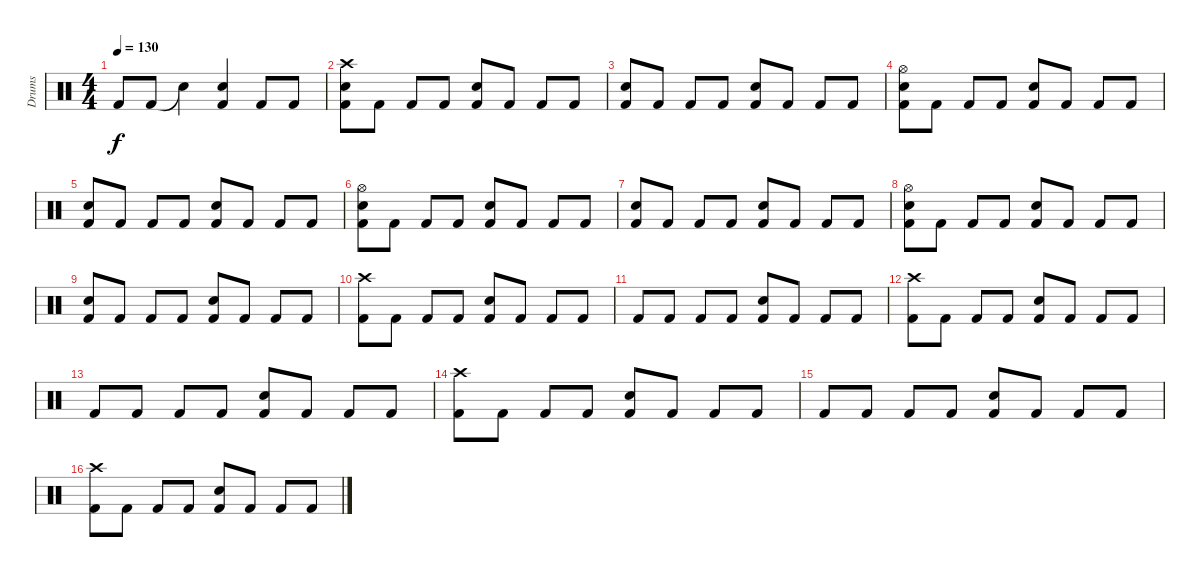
\track ("Drums" "Drums") {instrument percussion}
\staff {score}
\articulation defaults
\ts (4 4)
\tempo 130
\clef neutral
\ks c "Kick (hit) 2".8{dy f} "Kick (hit) 2".8 "Snare (hit)"{t}.4
("Electric Snare (hit)" "Kick (hit) 2").4 "Kick (hit) 2".8 "Kick (hit) 2".8 |
("Crash high (hit)" "Electric Snare (hit)" "Kick (hit) 2").8{volume 13} "Kick (hit) 2".8 "Kick (hit) 2".8 "Kick (hit) 2".8 ("Electric Snare (hit)" "Kick (hit) 2").8 "Kick (hit) 2".8 "Kick (hit) 2".8 "Kick (hit) 2".8 |
("Snare (hit) 2" "Kick (hit) 2").8 "Kick (hit) 2".8 "Kick (hit) 2".8 "Kick (hit) 2".8 ("Electric Snare (hit)" "Kick (hit) 2").8 "Kick (hit) 2".8 "Kick (hit) 2".8 "Kick (hit) 2".8 |
("Hi-Hat (open)" "Electric Snare (hit)" "Kick (hit) 2").8 "Kick (hit) 2".8 "Kick (hit) 2".8 "Kick (hit) 2".8 ("Electric Snare (hit)" "Kick (hit) 2").8 "Kick (hit) 2".8 "Kick (hit) 2".8 "Kick (hit) 2".8 |
("Snare (hit) 2" "Kick (hit) 2").8 "Kick (hit) 2".8 "Kick (hit) 2".8 "Kick (hit) 2".8 ("Electric Snare (hit)" "Kick (hit) 2").8 "Kick (hit) 2".8 "Kick (hit) 2".8 "Kick (hit) 2".8 |
("Hi-Hat (open)" "Electric Snare (hit)" "Kick (hit) 2").8 "Kick (hit) 2".8 "Kick (hit) 2".8 "Kick (hit) 2".8 ("Electric Snare (hit)" "Kick (hit) 2").8 "Kick (hit) 2".8 "Kick (hit) 2".8 "Kick (hit) 2".8 |
("Snare (hit) 2" "Kick (hit) 2").8 "Kick (hit) 2".8 "Kick (hit) 2".8 "Kick (hit) 2".8 ("Electric Snare (hit)" "Kick (hit) 2").8 "Kick (hit) 2".8 "Kick (hit) 2".8 "Kick (hit) 2".8 |
("Hi-Hat (open)" "Electric Snare (hit)" "Kick (hit) 2").8 "Kick (hit) 2".8 "Kick (hit) 2".8 "Kick (hit) 2".8 ("Electric Snare (hit)" "Kick (hit) 2").8 "Kick (hit) 2".8 "Kick (hit) 2".8 "Kick (hit) 2".8 |
("Snare (hit) 2" "Kick (hit) 2").8 "Kick (hit) 2".8 "Kick (hit) 2".8 "Kick (hit) 2".8 ("Electric Snare (hit)" "Kick (hit) 2").8 "Kick (hit) 2".8 "Kick (hit) 2".8 "Kick (hit) 2".8 |
("Crash high (hit)" "Kick (hit) 2").8 "Kick (hit) 2".8 "Kick (hit) 2".8 "Kick (hit) 2".8 ("Electric Snare (hit)" "Kick (hit) 2").8 "Kick (hit) 2".8 "Kick (hit) 2".8 "Kick (hit) 2".8 |
"Kick (hit) 2".8 "Kick (hit) 2".8 "Kick (hit) 2".8 "Kick (hit) 2".8 ("Electric Snare (hit)" "Kick (hit) 2").8 "Kick (hit) 2".8 "Kick (hit) 2".8 "Kick (hit) 2".8 |
("Crash high (hit)" "Kick (hit) 2").8 "Kick (hit) 2".8 "Kick (hit) 2".8 "Kick (hit) 2".8 ("Electric Snare (hit)" "Kick (hit) 2").8 "Kick (hit) 2".8 "Kick (hit) 2".8 "Kick (hit) 2".8 |
"Kick (hit) 2".8 "Kick (hit) 2".8 "Kick (hit) 2".8 "Kick (hit) 2".8 ("Electric Snare (hit)" "Kick (hit) 2").8 "Kick (hit) 2".8 "Kick (hit) 2".8 "Kick (hit) 2".8 |
("Crash high (hit)" "Kick (hit) 2").8 "Kick (hit) 2".8 "Kick (hit) 2".8 "Kick (hit) 2".8 ("Electric Snare (hit)" "Kick (hit) 2").8 "Kick (hit) 2".8 "Kick (hit) 2".8 "Kick (hit) 2".8 |
"Kick (hit) 2".8 "Kick (hit) 2".8 "Kick (hit) 2".8 "Kick (hit) 2".8 ("Electric Snare (hit)" "Kick (hit) 2").8 "Kick (hit) 2".8 "Kick (hit) 2".8 "Kick (hit) 2".8 |
("Crash high (hit)" "Kick (hit) 2").8 "Kick (hit) 2".8 "Kick (hit) 2".8 "Kick (hit) 2".8 ("Electric Snare (hit)" "Kick (hit) 2").8 "Kick (hit) 2".8 "Kick (hit) 2".8 "Kick (hit) 2".8
